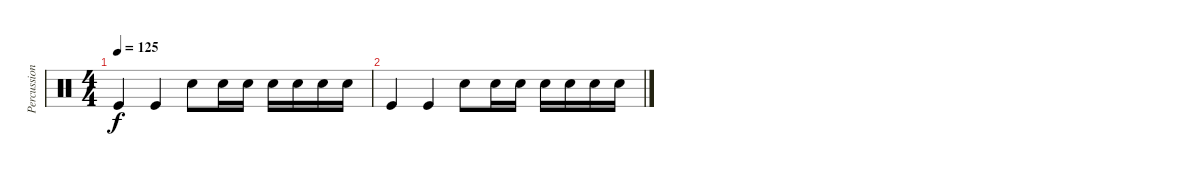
\track ("Percussion" "Percussion") {instrument percussion}
\staff {score}
\articulation defaults
\ts (4 4)
\tempo 125
\clef neutral
\ks c "Kick (hit)".4{dy f} "Kick (hit)".4 "Snare (hit) 2".8 "Snare (hit) 2".16 "Snare (hit) 2".16 "Snare (hit) 2".16 "Snare (hit) 2".16 "Snare (hit) 2".16 "Snare (hit) 2".16
|
"Kick (hit)".4 "Kick (hit)".4 "Snare (hit) 2".8 "Snare (hit) 2".16 "Snare (hit) 2".16 "Snare (hit) 2".16 "Snare (hit) 2".16 "Snare (hit) 2".16 "Snare (hit) 2".16
